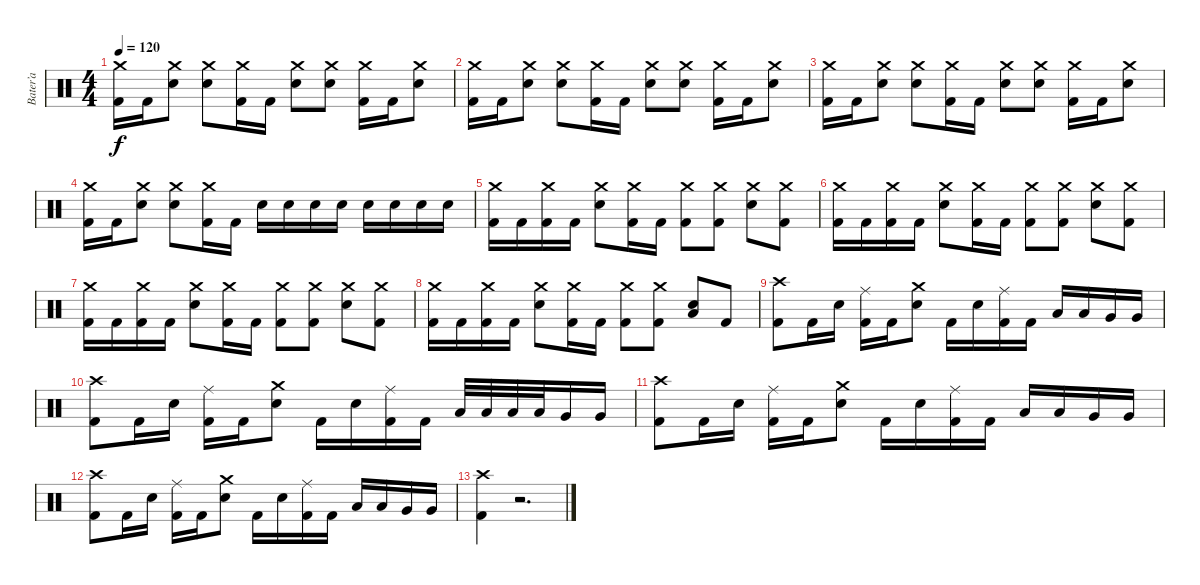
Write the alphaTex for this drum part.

\track ("Bater’a" "Bater’a") {instrument percussion}
\staff {score}
\articulation defaults
\ts (4 4)
\tempo 120
\clef neutral
\ks c
("Crash medium (hit)" "Kick (hit) 2").16{dy f} "Kick (hit) 2".16 ("Crash medium (hit)" "Electric Snare (hit)").8 ("Crash medium (hit)" "Electric Snare (hit)").8 ("Crash medium (hit)" "Kick (hit) 2").16 "Kick (hit) 2".16 ("Crash medium (hit)" "Electric Snare (hit)").8 ("Crash medium (hit)" "Electric Snare (hit)").8 ("Crash medium (hit)" "Kick (hit) 2").16 "Kick (hit) 2".16 ("Crash medium (hit)" "Electric Snare (hit)").8 |
("Crash medium (hit)" "Kick (hit) 2").16 "Kick (hit) 2".16 ("Crash medium (hit)" "Electric Snare (hit)").8 ("Crash medium (hit)" "Electric Snare (hit)").8 ("Crash medium (hit)" "Kick (hit) 2").16 "Kick (hit) 2".16 ("Crash medium (hit)" "Electric Snare (hit)").8 ("Crash medium (hit)" "Electric Snare (hit)").8 ("Crash medium (hit)" "Kick (hit) 2").16 "Kick (hit) 2".16 ("Crash medium (hit)" "Electric Snare (hit)").8 |
("Crash medium (hit)" "Kick (hit) 2").16 "Kick (hit) 2".16 ("Crash medium (hit)" "Electric Snare (hit)").8 ("Crash medium (hit)" "Electric Snare (hit)").8 ("Crash medium (hit)" "Kick (hit) 2").16 "Kick (hit) 2".16 ("Crash medium (hit)" "Electric Snare (hit)").8 ("Crash medium (hit)" "Electric Snare (hit)").8 ("Crash medium (hit)" "Kick (hit) 2").16 "Kick (hit) 2".16 ("Crash medium (hit)" "Electric Snare (hit)").8 |
("Crash medium (hit)" "Kick (hit) 2").16 "Kick (hit) 2".16 ("Crash medium (hit)" "Electric Snare (hit)").8 ("Crash medium (hit)" "Electric Snare (hit)").8 ("Crash medium (hit)" "Kick (hit) 2").16 "Kick (hit) 2".16 "Electric Snare (hit)".16 "Electric Snare (hit)".16 "Electric Snare (hit)".16 "Electric Snare (hit)".16 "Electric Snare (hit)".16 "Electric Snare (hit)".16 "Electric Snare (hit)".16 "Electric Snare (hit)".16 |
("Crash medium (hit)" "Kick (hit) 2").16 "Kick (hit) 2".16 ("Crash medium (hit)" "Kick (hit) 2").16 "Kick (hit) 2".16 ("Crash medium (hit)" "Electric Snare (hit)").8 ("Crash medium (hit)" "Kick (hit) 2").16 "Kick (hit) 2".16 ("Crash medium (hit)" "Kick (hit) 2").8 ("Crash medium (hit)" "Kick (hit) 2").8 ("Crash medium (hit)" "Electric Snare (hit)").8 ("Crash medium (hit)" "Kick (hit) 2").8 |
("Crash medium (hit)" "Kick (hit) 2").16 "Kick (hit) 2".16 ("Crash medium (hit)" "Kick (hit) 2").16 "Kick (hit) 2".16 ("Crash medium (hit)" "Electric Snare (hit)").8 ("Crash medium (hit)" "Kick (hit) 2").16 "Kick (hit) 2".16 ("Crash medium (hit)" "Kick (hit) 2").8 ("Crash medium (hit)" "Kick (hit) 2").8 ("Crash medium (hit)" "Electric Snare (hit)").8 ("Crash medium (hit)" "Kick (hit) 2").8 |
("Crash medium (hit)" "Kick (hit) 2").16 "Kick (hit) 2".16 ("Crash medium (hit)" "Kick (hit) 2").16 "Kick (hit) 2".16 ("Crash medium (hit)" "Electric Snare (hit)").8 ("Crash medium (hit)" "Kick (hit) 2").16 "Kick (hit) 2".16 ("Crash medium (hit)" "Kick (hit) 2").8 ("Crash medium (hit)" "Kick (hit) 2").8 ("Crash medium (hit)" "Electric Snare (hit)").8 ("Crash medium (hit)" "Kick (hit) 2").8 |
("Crash medium (hit)" "Kick (hit) 2").16 "Kick (hit) 2".16 ("Crash medium (hit)" "Kick (hit) 2").16 "Kick (hit) 2".16 ("Crash medium (hit)" "Electric Snare (hit)").8 ("Crash medium (hit)" "Kick (hit) 2").16 "Kick (hit) 2".16 ("Crash medium (hit)" "Kick (hit) 2").8 ("Crash medium (hit)" "Kick (hit) 2").8 ("Low Floor Tom (hit)" "Electric Snare (hit)").8 "Kick (hit) 2".8 |
("Crash high (hit)" "Kick (hit) 2").8 "Kick (hit) 2".16 "Electric Snare (hit)".16 ("Ride (middle)" "Kick (hit) 2").16 "Kick (hit) 2".16 ("Crash medium (hit)" "Electric Snare (hit)").8 "Kick (hit) 2".16 "Electric Snare (hit)".16 ("Ride (middle)" "Kick (hit) 2").16 "Kick (hit) 2".16 "Low Tom (hit)".16 "Low Tom (hit)".16 "Very Low Tom (hit)".16 "Very Low Tom (hit)".16 |
("Crash high (hit)" "Kick (hit) 2").8 "Kick (hit) 2".16 "Electric Snare (hit)".16 ("Ride (middle)" "Kick (hit) 2").16 "Kick (hit) 2".16 ("Crash medium (hit)" "Electric Snare (hit)").8 "Kick (hit) 2".16 "Electric Snare (hit)".16 ("Ride (middle)" "Kick (hit) 2").16 "Kick (hit) 2".16 "Low Tom (hit)".32 "Low Tom (hit)".32 "Low Tom (hit)".32 "Low Tom (hit)".32 "Very Low Tom (hit)".16 "Very Low Tom (hit)".16 |
("Crash high (hit)" "Kick (hit) 2").8 "Kick (hit) 2".16 "Electric Snare (hit)".16 ("Ride (middle)" "Kick (hit) 2").16 "Kick (hit) 2".16 ("Crash medium (hit)" "Electric Snare (hit)").8 "Kick (hit) 2".16 "Electric Snare (hit)".16 ("Ride (middle)" "Kick (hit) 2").16 "Kick (hit) 2".16 "Low Tom (hit)".16 "Low Tom (hit)".16 "Very Low Tom (hit)".16 "Very Low Tom (hit)".16 |
("Crash high (hit)" "Kick (hit) 2").8 "Kick (hit) 2".16 "Electric Snare (hit)".16 ("Ride (middle)" "Kick (hit) 2").16 "Kick (hit) 2".16 ("Crash medium (hit)" "Electric Snare (hit)").8 "Kick (hit) 2".16 "Electric Snare (hit)".16 ("Ride (middle)" "Kick (hit) 2").16 "Kick (hit) 2".16 "Low Tom (hit)".16 "Low Tom (hit)".16 "Very Low Tom (hit)".16 "Very Low Tom (hit)".16 |
("Crash high (hit)" "Kick (hit) 2").4 r.2{d}
